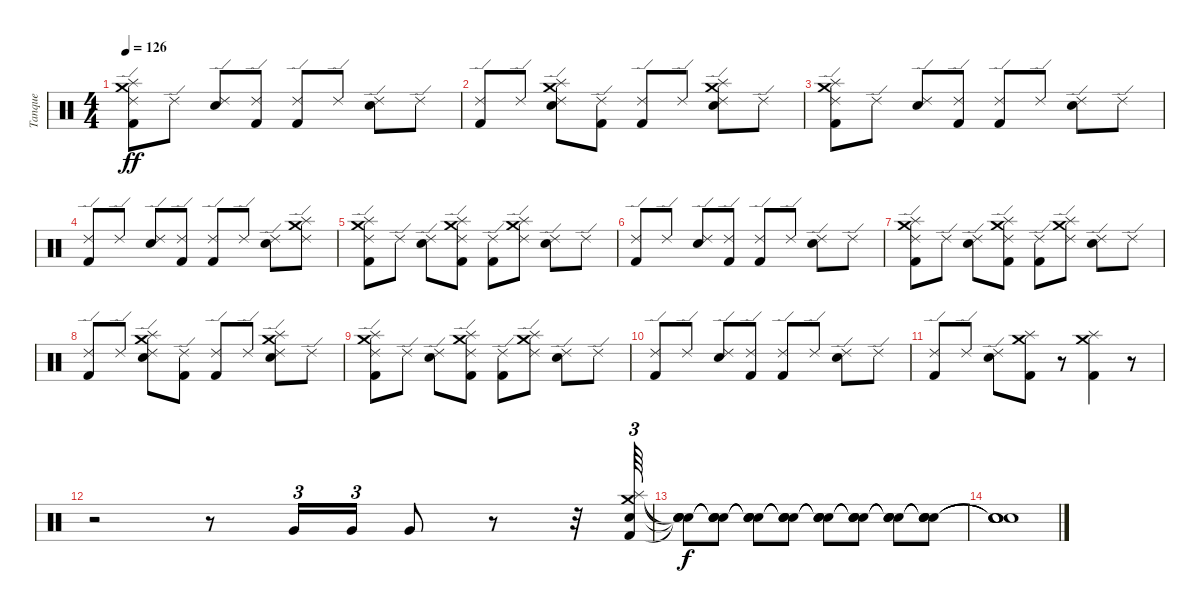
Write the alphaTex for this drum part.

\track ("Tanque" "Tanque") {instrument percussion}
\staff {score}
\articulation defaults
\ts (4 4)
\tempo 126
\clef neutral
\ks c
("Kick (hit) 2" "Splash (hit)" "Ride (edge) 2" "Crash medium (hit)").8{dy ff} "Ride (edge) 2".8 ("Snare (hit) 2" "Ride (edge) 2").8 ("Kick (hit) 2" "Ride (edge) 2").8 ("Kick (hit) 2" "Ride (edge) 2").8 "Ride (edge) 2".8 ("Snare (hit) 2" "Ride (edge) 2").8 "Ride (edge) 2".8 |
("Kick (hit) 2" "Ride (edge) 2").8 "Ride (edge) 2".8 ("Snare (hit) 2" "Splash (hit)" "Crash medium (hit)" "Ride (edge) 2").8 ("Kick (hit) 2" "Ride (edge) 2").8 ("Kick (hit) 2" "Ride (edge) 2").8 "Ride (edge) 2".8 ("Snare (hit) 2" "Ride (edge) 2" "Splash (hit)" "Crash medium (hit)").8 "Ride (edge) 2".8 |
("Kick (hit) 2" "Crash medium (hit)" "Splash (hit)" "Ride (edge) 2").8 "Ride (edge) 2".8 ("Snare (hit) 2" "Ride (edge) 2").8 ("Kick (hit) 2" "Ride (edge) 2").8 ("Kick (hit) 2" "Ride (edge) 2").8 "Ride (edge) 2".8 ("Snare (hit) 2" "Ride (edge) 2").8 "Ride (edge) 2".8 |
("Kick (hit) 2" "Ride (edge) 2").8 "Ride (edge) 2".8 ("Ride (edge) 2" "Snare (hit) 2").8 ("Ride (edge) 2" "Kick (hit) 2").8 ("Ride (edge) 2" "Kick (hit) 2").8 "Ride (edge) 2".8 ("Ride (edge) 2" "Snare (hit) 2").8 ("Ride (edge) 2" "Splash (hit)" "Crash medium (hit)").8 |
("Splash (hit)" "Crash medium (hit)" "Ride (edge) 2" "Kick (hit) 2").8 "Ride (edge) 2".8 ("Ride (edge) 2" "Snare (hit) 2").8 ("Ride (edge) 2" "Crash medium (hit)" "Splash (hit)" "Kick (hit) 2").8 ("Ride (edge) 2" "Kick (hit) 2").8 ("Ride (edge) 2" "Crash medium (hit)" "Splash (hit)").8 ("Ride (edge) 2" "Snare (hit) 2").8 "Ride (edge) 2".8 |
("Ride (edge) 2" "Kick (hit) 2").8 "Ride (edge) 2".8 ("Ride (edge) 2" "Snare (hit) 2").8 ("Ride (edge) 2" "Kick (hit) 2").8 ("Ride (edge) 2" "Kick (hit) 2").8 "Ride (edge) 2".8 ("Ride (edge) 2" "Snare (hit) 2").8 "Ride (edge) 2".8 |
("Crash medium (hit)" "Splash (hit)" "Ride (edge) 2" "Kick (hit) 2").8 "Ride (edge) 2".8 ("Ride (edge) 2" "Snare (hit) 2").8 ("Splash (hit)" "Crash medium (hit)" "Ride (edge) 2" "Kick (hit) 2").8 ("Ride (edge) 2" "Kick (hit) 2").8 ("Ride (edge) 2" "Crash medium (hit)" "Splash (hit)").8 ("Ride (edge) 2" "Snare (hit) 2").8 "Ride (edge) 2".8 |
("Ride (edge) 2" "Kick (hit) 2").8 "Ride (edge) 2".8 ("Ride (edge) 2" "Splash (hit)" "Crash medium (hit)" "Snare (hit) 2").8 ("Ride (edge) 2" "Kick (hit) 2").8 ("Ride (edge) 2" "Kick (hit) 2").8 "Ride (edge) 2".8 ("Ride (edge) 2" "Splash (hit)" "Crash medium (hit)" "Snare (hit) 2").8 "Ride (edge) 2".8 |
("Crash medium (hit)" "Ride (edge) 2" "Splash (hit)" "Kick (hit) 2").8 "Ride (edge) 2".8 ("Ride (edge) 2" "Snare (hit) 2").8 ("Crash medium (hit)" "Splash (hit)" "Ride (edge) 2" "Kick (hit) 2").8 ("Ride (edge) 2" "Kick (hit) 2").8 ("Ride (edge) 2" "Splash (hit)" "Crash medium (hit)").8 ("Ride (edge) 2" "Snare (hit) 2").8 "Ride (edge) 2".8 |
("Kick (hit) 2" "Ride (edge) 2").8 "Ride (edge) 2".8 ("Snare (hit) 2" "Ride (edge) 2").8 ("Kick (hit) 2" "Ride (edge) 2").8 ("Kick (hit) 2" "Ride (edge) 2").8 "Ride (edge) 2".8 ("Snare (hit) 2" "Ride (edge) 2").8 "Ride (edge) 2".8 |
("Kick (hit) 2" "Ride (edge) 2").8 "Ride (edge) 2".8 ("Snare (hit) 2" "Ride (edge) 2").8 ("Crash medium (hit)" "Splash (hit)" "Kick (hit) 2").8 r.8 ("Crash medium (hit)" "Splash (hit)" "Kick (hit) 2").4 r.8 |
r.2 r.8 "Very Low Tom (hit)".16{tu (3 2)} "Very Low Tom (hit)".16{tu (3 2)} "Very Low Tom (hit)".8 r.8 r.32 ("Crash medium (hit)" "Splash (hit)" "Snare (hit) 2" "Kick (hit) 2").64{tu (3 2)} |
("Snare (hit)"{t} "Snare (hit)"{t} "Snare (hit)"{t} "Snare (hit)"{t}).8{dy f} ("Snare (hit)"{t} "Snare (hit)"{t} "Snare (hit)"{t} "Snare (hit)"{t}).8 ("Snare (hit)"{t} "Snare (hit)"{t} "Snare (hit)"{t} "Snare (hit)"{t}).8 ("Snare (hit)"{t} "Snare (hit)"{t} "Snare (hit)"{t} "Snare (hit)"{t}).8 ("Snare (hit)"{t} "Snare (hit)"{t} "Snare (hit)"{t} "Snare (hit)"{t}).8 ("Snare (hit)"{t} "Snare (hit)"{t} "Snare (hit)"{t} "Snare (hit)"{t}).8 ("Snare (hit)"{t} "Snare (hit)"{t} "Snare (hit)"{t} "Snare (hit)"{t}).8 ("Snare (hit)"{t} "Snare (hit)"{t} "Snare (hit)"{t} "Snare (hit)"{t}).8 |
("Snare (hit)"{t} "Snare (hit)"{t} "Snare (hit)"{t} "Snare (hit)"{t}).1
